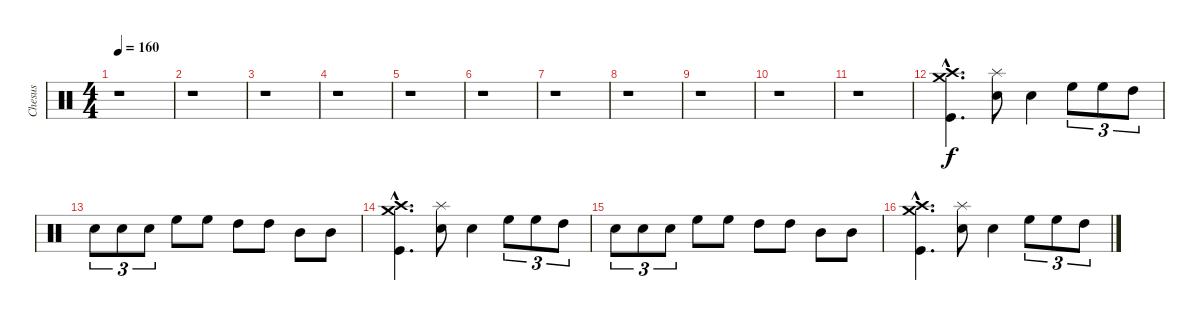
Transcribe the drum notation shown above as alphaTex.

\track ("Chesus" "Chesus") {instrument percussion}
\staff {score}
\articulation defaults
\ts (4 4)
\tempo 160
\clef neutral
\ks c
r.1{dy f} |
r.1 |
r.1 |
r.1 |
r.1 |
r.1 |
r.1 |
r.1 |
r.1 |
r.1 |
r.1 |
("Crash medium (hit)"{hac} "Crash high (hit)"{hac} "Kick (hit)"{hac}).4{d} ("Splash (hit)" "Snare (hit) 2").8 "Snare (hit) 2".4 "High Floor Tom (hit)".8{tu (3 2)} "High Floor Tom (hit)".8{tu (3 2)} "High Tom (hit)".8{tu (3 2)} |
"Snare (hit) 2".8{tu (3 2)} "Snare (hit) 2".8{tu (3 2)} "Snare (hit) 2".8{tu (3 2)} "High Floor Tom (hit)".8 "High Floor Tom (hit)".8 "High Tom (hit)".8 "High Tom (hit)".8 "Mid Tom (hit)".8 "Mid Tom (hit)".8 |
("Crash medium (hit)"{hac} "Crash high (hit)"{hac} "Kick (hit)"{hac}).4{d} ("Splash (hit)" "Snare (hit) 2").8 "Snare (hit) 2".4 "High Floor Tom (hit)".8{tu (3 2)} "High Floor Tom (hit)".8{tu (3 2)} "High Tom (hit)".8{tu (3 2)} |
"Snare (hit) 2".8{tu (3 2)} "Snare (hit) 2".8{tu (3 2)} "Snare (hit) 2".8{tu (3 2)} "High Floor Tom (hit)".8 "High Floor Tom (hit)".8 "High Tom (hit)".8 "High Tom (hit)".8 "Mid Tom (hit)".8 "Mid Tom (hit)".8 |
("Crash medium (hit)"{hac} "Crash high (hit)"{hac} "Kick (hit)"{hac}).4{d} ("Splash (hit)" "Snare (hit) 2").8 "Snare (hit) 2".4 "High Floor Tom (hit)".8{tu (3 2)} "High Floor Tom (hit)".8{tu (3 2)} "High Tom (hit)".8{tu (3 2)}
